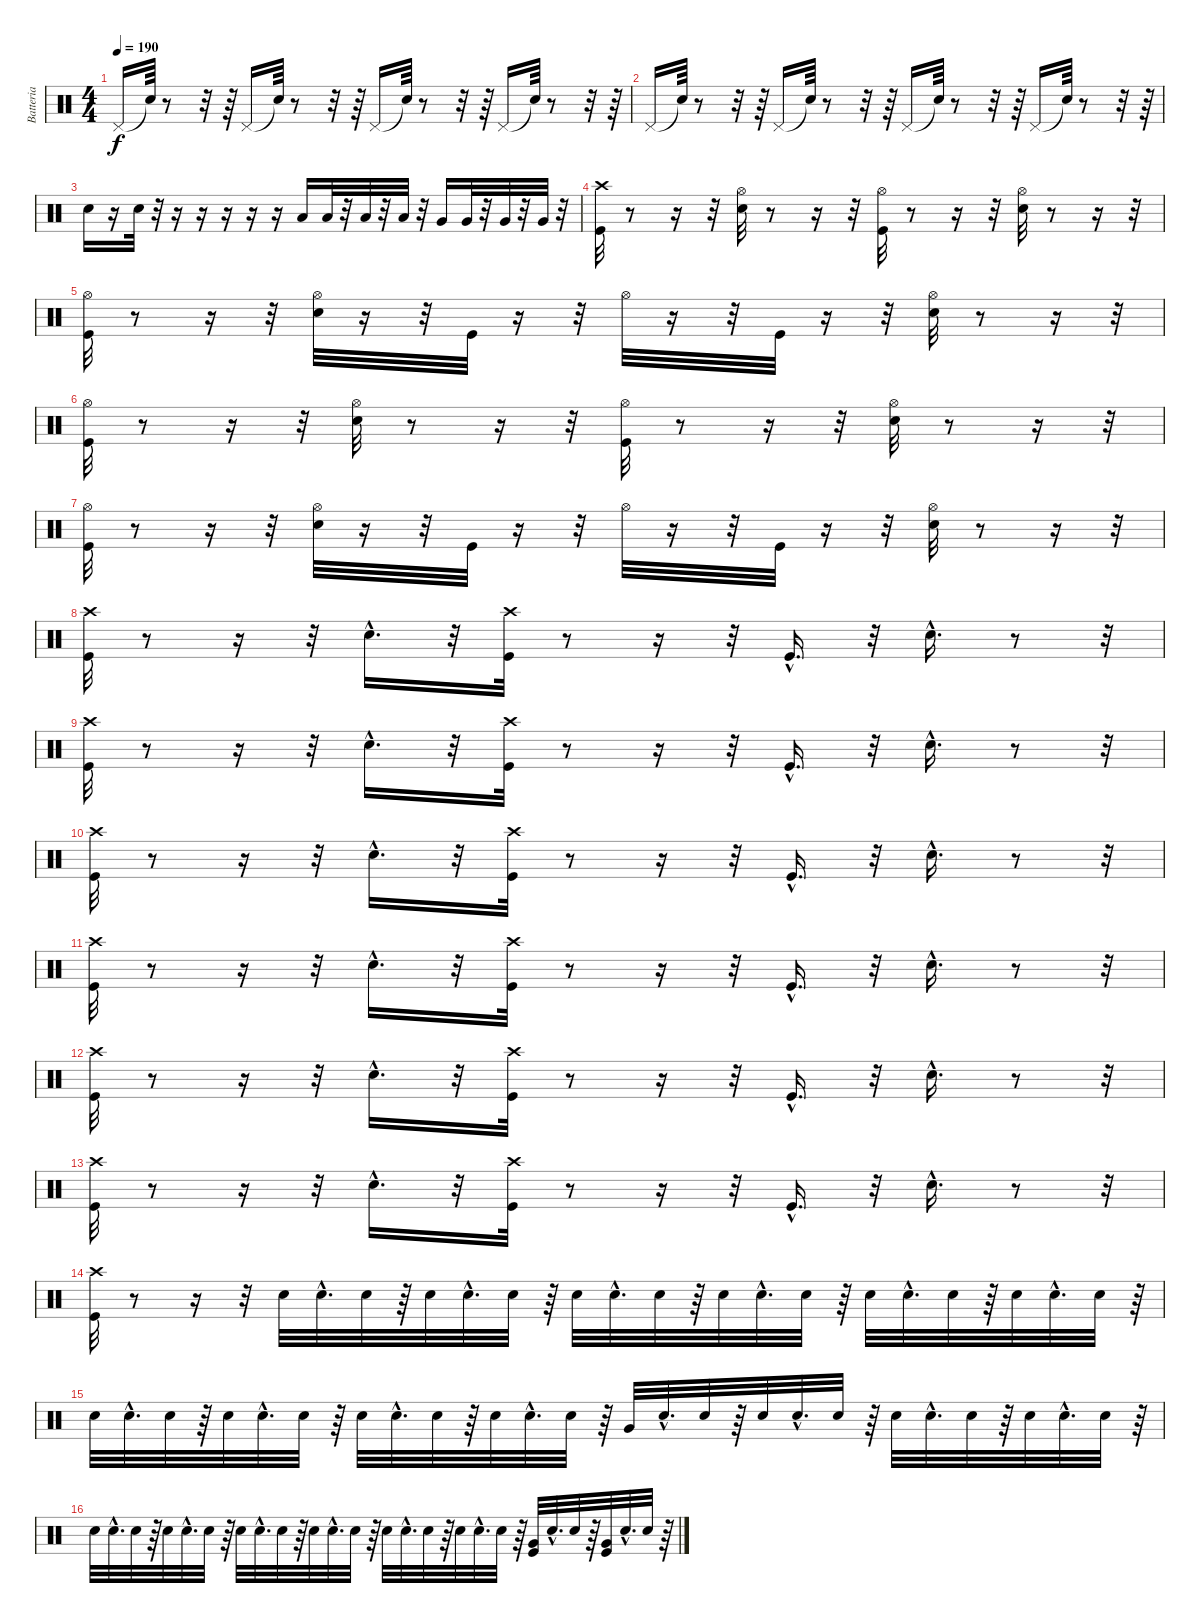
\track ("Batteria" "Batteria") {instrument percussion}
\staff {score}
\articulation defaults
\ts (4 4)
\tempo 190
\clef neutral
\ks c "Pedal Hi-Hat (hit)".16{dy f} "Snare (hit)"{t}.64
r.8 r.32 r.64 "Pedal Hi-Hat (hit)".16 "Snare (hit)"{t}.64 r.8 r.32 r.64 "Pedal Hi-Hat (hit)".16 "Snare (hit)"{t}.64 r.8 r.32 r.64 "Pedal Hi-Hat (hit)".16 "Snare (hit)"{t}.64 r.8 r.32 r.64 |
"Pedal Hi-Hat (hit)".16 "Snare (hit)"{t}.64 r.8 r.32 r.64 "Pedal Hi-Hat (hit)".16 "Snare (hit)"{t}.64 r.8 r.32 r.64 "Pedal Hi-Hat (hit)".16 "Snare (hit)"{t}.64 r.8 r.32 r.64 "Pedal Hi-Hat (hit)".16 "Snare (hit)"{t}.64 r.8 r.32 r.64 |
"Snare (hit) 2".16 r.16 "Snare (hit) 2".32 r.32 r.16 r.16 r.16 r.16 r.16 "Low Tom (hit)".16 "Low Tom (hit)".32 r.32 "Low Tom (hit)".32 r.32 "Low Tom (hit)".32 r.32 "Very Low Tom (hit)".16 "Very Low Tom (hit)".32 r.32 "Very Low Tom (hit)".32 r.32 "Very Low Tom (hit)".32 r.32 |
("Crash high (hit)" "Kick (hit)").32 r.8 r.16 r.32 ("Hi-Hat (open)" "Snare (hit) 2").32 r.8 r.16 r.32 ("Hi-Hat (open)" "Kick (hit)").32 r.8 r.16 r.32 ("Hi-Hat (open)" "Snare (hit) 2").32 r.8 r.16 r.32 |
("Hi-Hat (open)" "Kick (hit)").32 r.8 r.16 r.32 ("Hi-Hat (open)" "Snare (hit) 2").32 r.16 r.32 "Kick (hit)".32 r.16 r.32 "Hi-Hat (open)".32 r.16 r.32 "Kick (hit)".32 r.16 r.32 ("Snare (hit) 2" "Hi-Hat (open)").32 r.8 r.16 r.32 |
("Kick (hit)" "Hi-Hat (open)").32 r.8 r.16 r.32 ("Hi-Hat (open)" "Snare (hit) 2").32 r.8 r.16 r.32 ("Hi-Hat (open)" "Kick (hit)").32 r.8 r.16 r.32 ("Snare (hit) 2" "Hi-Hat (open)").32 r.8 r.16 r.32 |
("Hi-Hat (open)" "Kick (hit)").32 r.8 r.16 r.32 ("Snare (hit) 2" "Hi-Hat (open)").32 r.16 r.32 "Kick (hit)".32 r.16 r.32 "Hi-Hat (open)".32 r.16 r.32 "Kick (hit)".32 r.16 r.32 ("Snare (hit) 2" "Hi-Hat (open)").32 r.8 r.16 r.32 |
("Kick (hit)" "Crash high (hit)").32 r.8 r.16 r.32 "Snare (hit) 2"{hac}.16{d} r.32 ("Crash high (hit)" "Kick (hit)").32 r.8 r.16 r.32 "Kick (hit)"{hac}.16{d} r.32 "Snare (hit) 2"{hac}.16{d} r.8 r.32 |
("Kick (hit)" "Crash high (hit)").32 r.8 r.16 r.32 "Snare (hit) 2"{hac}.16{d} r.32 ("Crash high (hit)" "Kick (hit)").32 r.8 r.16 r.32 "Kick (hit)"{hac}.16{d} r.32 "Snare (hit) 2"{hac}.16{d} r.8 r.32 |
("Kick (hit)" "Crash high (hit)").32 r.8 r.16 r.32 "Snare (hit) 2"{hac}.16{d} r.32 ("Crash high (hit)" "Kick (hit)").32 r.8 r.16 r.32 "Kick (hit)"{hac}.16{d} r.32 "Snare (hit) 2"{hac}.16{d} r.8 r.32 |
("Kick (hit)" "Crash high (hit)").32 r.8 r.16 r.32 "Snare (hit) 2"{hac}.16{d} r.32 ("Crash high (hit)" "Kick (hit)").32 r.8 r.16 r.32 "Kick (hit)"{hac}.16{d} r.32 "Snare (hit) 2"{hac}.16{d} r.8 r.32 |
("Kick (hit)" "Crash high (hit)").32 r.8 r.16 r.32 "Snare (hit) 2"{hac}.16{d} r.32 ("Crash high (hit)" "Kick (hit)").32 r.8 r.16 r.32 "Kick (hit)"{hac}.16{d} r.32 "Snare (hit) 2"{hac}.16{d} r.8 r.32 |
("Kick (hit)" "Crash high (hit)").32 r.8 r.16 r.32 "Snare (hit) 2"{hac}.16{d} r.32 ("Crash high (hit)" "Kick (hit)").32 r.8 r.16 r.32 "Kick (hit)"{hac}.16{d} r.32 "Snare (hit) 2"{hac}.16{d} r.8 r.32 |
("Crash high (hit)" "Kick (hit)").32 r.8 r.16 r.32 "Snare (hit) 2".32 "Snare (hit) 2"{hac}.32{d} "Snare (hit) 2".32 r.64 "Snare (hit) 2".32 "Snare (hit) 2"{hac}.32{d} "Snare (hit) 2".32 r.64 "Snare (hit) 2".32 "Snare (hit) 2"{hac}.32{d} "Snare (hit) 2".32 r.64 "Snare (hit) 2".32 "Snare (hit) 2"{hac}.32{d} "Snare (hit) 2".32 r.64 "Snare (hit) 2".32 "Snare (hit) 2"{hac}.32{d} "Snare (hit) 2".32 r.64 "Snare (hit) 2".32 "Snare (hit) 2"{hac}.32{d} "Snare (hit) 2".32 r.64 |
"Snare (hit) 2".32 "Snare (hit) 2"{hac}.32{d} "Snare (hit) 2".32 r.64 "Snare (hit) 2".32 "Snare (hit) 2"{hac}.32{d} "Snare (hit) 2".32 r.64 "Snare (hit) 2".32 "Snare (hit) 2"{hac}.32{d} "Snare (hit) 2".32 r.64 "Snare (hit) 2".32 "Snare (hit) 2"{hac}.32{d} "Snare (hit) 2".32 r.64 "Very Low Tom (hit)".32 "Snare (hit) 2"{hac}.32{d} "Snare (hit) 2".32 r.64 "Snare (hit) 2".32 "Snare (hit) 2"{hac}.32{d} "Snare (hit) 2".32 r.64 "Snare (hit) 2".32 "Snare (hit) 2"{hac}.32{d} "Snare (hit) 2".32 r.64 "Snare (hit) 2".32 "Snare (hit) 2"{hac}.32{d} "Snare (hit) 2".32 r.64 |
"Snare (hit) 2".32 "Snare (hit) 2"{hac}.32{d} "Snare (hit) 2".32 r.64 "Snare (hit) 2".32 "Snare (hit) 2"{hac}.32{d} "Snare (hit) 2".32 r.64 "Snare (hit) 2".32 "Snare (hit) 2"{hac}.32{d} "Snare (hit) 2".32 r.64 "Snare (hit) 2".32 "Snare (hit) 2"{hac}.32{d} "Snare (hit) 2".32 r.64 "Snare (hit) 2".32 "Snare (hit) 2"{hac}.32{d} "Snare (hit) 2".32 r.64 "Snare (hit) 2".32 "Snare (hit) 2"{hac}.32{d} "Snare (hit) 2".32 r.64 ("Kick (hit)" "Very Low Tom (hit)").32 "Snare (hit) 2"{hac}.32{d} "Snare (hit) 2".32 r.64 ("Kick (hit)" "Very Low Tom (hit)").32 "Snare (hit) 2"{hac}.32{d} "Snare (hit) 2".32 r.64
